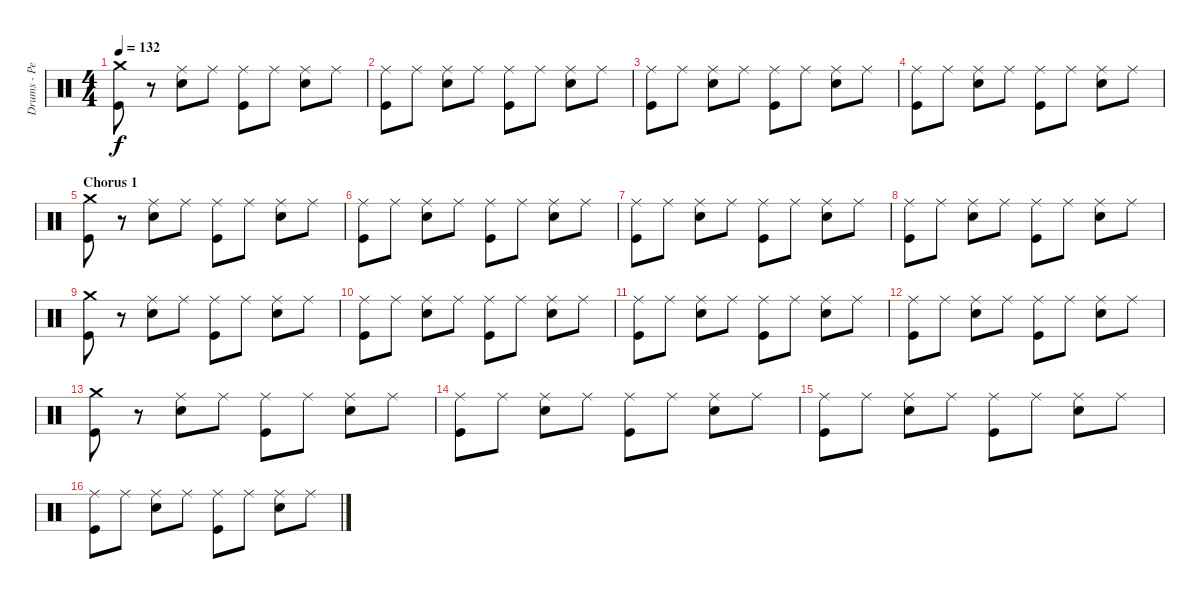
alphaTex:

\track ("Drums - Pete Gill" "Drums - Pe") {instrument percussion}
\staff {score}
\articulation defaults
\ts (4 4)
\tempo 132
\clef neutral
\ks c
("Crash medium (hit)" "Kick (hit)").8{dy f} r.8 ("Ride (middle)" "Snare (hit) 2").8 "Ride (middle)".8 ("Ride (middle)" "Kick (hit)").8 "Ride (middle)".8 ("Ride (middle)" "Snare (hit) 2").8 "Ride (middle)".8 |
("Ride (middle)" "Kick (hit)").8 "Ride (middle)".8 ("Ride (middle)" "Snare (hit) 2").8 "Ride (middle)".8 ("Ride (middle)" "Kick (hit)").8 "Ride (middle)".8 ("Ride (middle)" "Snare (hit) 2").8 "Ride (middle)".8 |
("Ride (middle)" "Kick (hit)").8 "Ride (middle)".8 ("Ride (middle)" "Snare (hit) 2").8 "Ride (middle)".8 ("Ride (middle)" "Kick (hit)").8 "Ride (middle)".8 ("Ride (middle)" "Snare (hit) 2").8 "Ride (middle)".8 |
("Ride (middle)" "Kick (hit)").8 "Ride (middle)".8 ("Ride (middle)" "Snare (hit) 2").8 "Ride (middle)".8 ("Ride (middle)" "Kick (hit)").8 "Ride (middle)".8 ("Ride (middle)" "Snare (hit) 2").8 "Ride (middle)".8 |
\section ("" "Chorus 1")
("Crash medium (hit)" "Kick (hit)").8 r.8 ("Ride (middle)" "Snare (hit) 2").8 "Ride (middle)".8 ("Ride (middle)" "Kick (hit)").8 "Ride (middle)".8 ("Ride (middle)" "Snare (hit) 2").8 "Ride (middle)".8 |
("Ride (middle)" "Kick (hit)").8 "Ride (middle)".8 ("Ride (middle)" "Snare (hit) 2").8 "Ride (middle)".8 ("Ride (middle)" "Kick (hit)").8 "Ride (middle)".8 ("Ride (middle)" "Snare (hit) 2").8 "Ride (middle)".8 |
("Ride (middle)" "Kick (hit)").8 "Ride (middle)".8 ("Ride (middle)" "Snare (hit) 2").8 "Ride (middle)".8 ("Ride (middle)" "Kick (hit)").8 "Ride (middle)".8 ("Ride (middle)" "Snare (hit) 2").8 "Ride (middle)".8 |
("Ride (middle)" "Kick (hit)").8 "Ride (middle)".8 ("Ride (middle)" "Snare (hit) 2").8 "Ride (middle)".8 ("Ride (middle)" "Kick (hit)").8 "Ride (middle)".8 ("Ride (middle)" "Snare (hit) 2").8 "Ride (middle)".8 |
("Crash medium (hit)" "Kick (hit)").8 r.8 ("Ride (middle)" "Snare (hit) 2").8 "Ride (middle)".8 ("Ride (middle)" "Kick (hit)").8 "Ride (middle)".8 ("Ride (middle)" "Snare (hit) 2").8 "Ride (middle)".8 |
("Ride (middle)" "Kick (hit)").8 "Ride (middle)".8 ("Ride (middle)" "Snare (hit) 2").8 "Ride (middle)".8 ("Ride (middle)" "Kick (hit)").8 "Ride (middle)".8 ("Ride (middle)" "Snare (hit) 2").8 "Ride (middle)".8 |
("Ride (middle)" "Kick (hit)").8 "Ride (middle)".8 ("Ride (middle)" "Snare (hit) 2").8 "Ride (middle)".8 ("Ride (middle)" "Kick (hit)").8 "Ride (middle)".8 ("Ride (middle)" "Snare (hit) 2").8 "Ride (middle)".8 |
("Ride (middle)" "Kick (hit)").8 "Ride (middle)".8 ("Ride (middle)" "Snare (hit) 2").8 "Ride (middle)".8 ("Ride (middle)" "Kick (hit)").8 "Ride (middle)".8 ("Ride (middle)" "Snare (hit) 2").8 "Ride (middle)".8 |
("Crash medium (hit)" "Kick (hit)").8 r.8 ("Ride (middle)" "Snare (hit) 2").8 "Ride (middle)".8 ("Ride (middle)" "Kick (hit)").8 "Ride (middle)".8 ("Ride (middle)" "Snare (hit) 2").8 "Ride (middle)".8 |
("Ride (middle)" "Kick (hit)").8 "Ride (middle)".8 ("Ride (middle)" "Snare (hit) 2").8 "Ride (middle)".8 ("Ride (middle)" "Kick (hit)").8 "Ride (middle)".8 ("Ride (middle)" "Snare (hit) 2").8 "Ride (middle)".8 |
("Ride (middle)" "Kick (hit)").8 "Ride (middle)".8 ("Ride (middle)" "Snare (hit) 2").8 "Ride (middle)".8 ("Ride (middle)" "Kick (hit)").8 "Ride (middle)".8 ("Ride (middle)" "Snare (hit) 2").8 "Ride (middle)".8 |
("Ride (middle)" "Kick (hit)").8 "Ride (middle)".8 ("Ride (middle)" "Snare (hit) 2").8 "Ride (middle)".8 ("Ride (middle)" "Kick (hit)").8 "Ride (middle)".8 ("Ride (middle)" "Snare (hit) 2").8 "Ride (middle)".8
